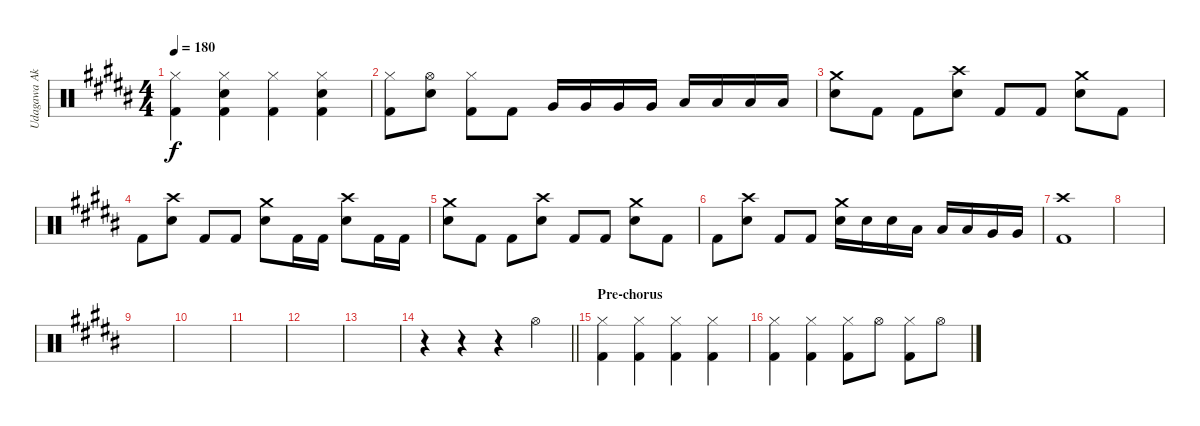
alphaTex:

\track ("Udagawa Ako" "Udagawa Ak") {instrument percussion}
\staff {score}
\articulation defaults
\ts (4 4)
\tempo 180
\clef neutral
\ks b
("Hi-Hat (closed)" "Kick (hit) 2").4{dy f} ("Hi-Hat (closed)" "Electric Snare (hit)" "Kick (hit) 2").4 ("Hi-Hat (closed)" "Kick (hit) 2").4 ("Hi-Hat (closed)" "Electric Snare (hit)" "Kick (hit) 2").4 |
("Hi-Hat (closed)" "Kick (hit) 2").8 ("Hi-Hat (open)" "Electric Snare (hit)").8 ("Hi-Hat (closed)" "Kick (hit) 2").8 "Kick (hit) 2".8 "Very Low Tom (hit)".16 "Very Low Tom (hit)".16 "Very Low Tom (hit)".16 "Very Low Tom (hit)".16 "Low Floor Tom (hit)".16 "Low Floor Tom (hit)".16 "Low Floor Tom (hit)".16 "Low Floor Tom (hit)".16 |
("Crash medium (hit)" "Electric Snare (hit)").8 "Kick (hit) 2".8 "Kick (hit) 2".8 ("Crash high (hit)" "Electric Snare (hit)").8 "Kick (hit) 2".8 "Kick (hit) 2".8 ("Crash medium (hit)" "Electric Snare (hit)").8 "Kick (hit) 2".8 |
"Kick (hit) 2".8 ("Crash high (hit)" "Electric Snare (hit)").8 "Kick (hit) 2".8 "Kick (hit) 2".8 ("Crash medium (hit)" "Electric Snare (hit)").8 "Kick (hit) 2".16 "Kick (hit) 2".16 ("Crash high (hit)" "Electric Snare (hit)").8 "Kick (hit) 2".16 "Kick (hit) 2".16 |
("Crash medium (hit)" "Electric Snare (hit)").8 "Kick (hit) 2".8 "Kick (hit) 2".8 ("Crash high (hit)" "Electric Snare (hit)").8 "Kick (hit) 2".8 "Kick (hit) 2".8 ("Crash medium (hit)" "Electric Snare (hit)").8 "Kick (hit) 2".8 |
"Kick (hit) 2".8 ("Crash high (hit)" "Electric Snare (hit)").8 "Kick (hit) 2".8 "Kick (hit) 2".8 ("Crash medium (hit)" "Electric Snare (hit)").16 "Electric Snare (hit)".16 "Electric Snare (hit)".16 "Low Tom (hit)".16 "Low Tom (hit)".16 "Low Tom (hit)".16 "Very Low Tom (hit)".16 "Very Low Tom (hit)".16 |
("Crash high (hit)" "Kick (hit) 2").1 |
|
|
|
|
|
|
\barLineRight lightlight
r.4 r.4 r.4 "Hi-Hat (open)".4 |
\section ("" "Pre-chorus")
("Hi-Hat (closed)" "Kick (hit) 2").4 ("Hi-Hat (closed)" "Kick (hit) 2").4 ("Hi-Hat (closed)" "Kick (hit) 2").4 ("Hi-Hat (closed)" "Kick (hit) 2").4 |
("Hi-Hat (closed)" "Kick (hit) 2").4 ("Hi-Hat (closed)" "Kick (hit) 2").4 ("Hi-Hat (closed)" "Kick (hit) 2").8 "Hi-Hat (open)".8 ("Hi-Hat (closed)" "Kick (hit) 2").8 "Hi-Hat (open)".8
